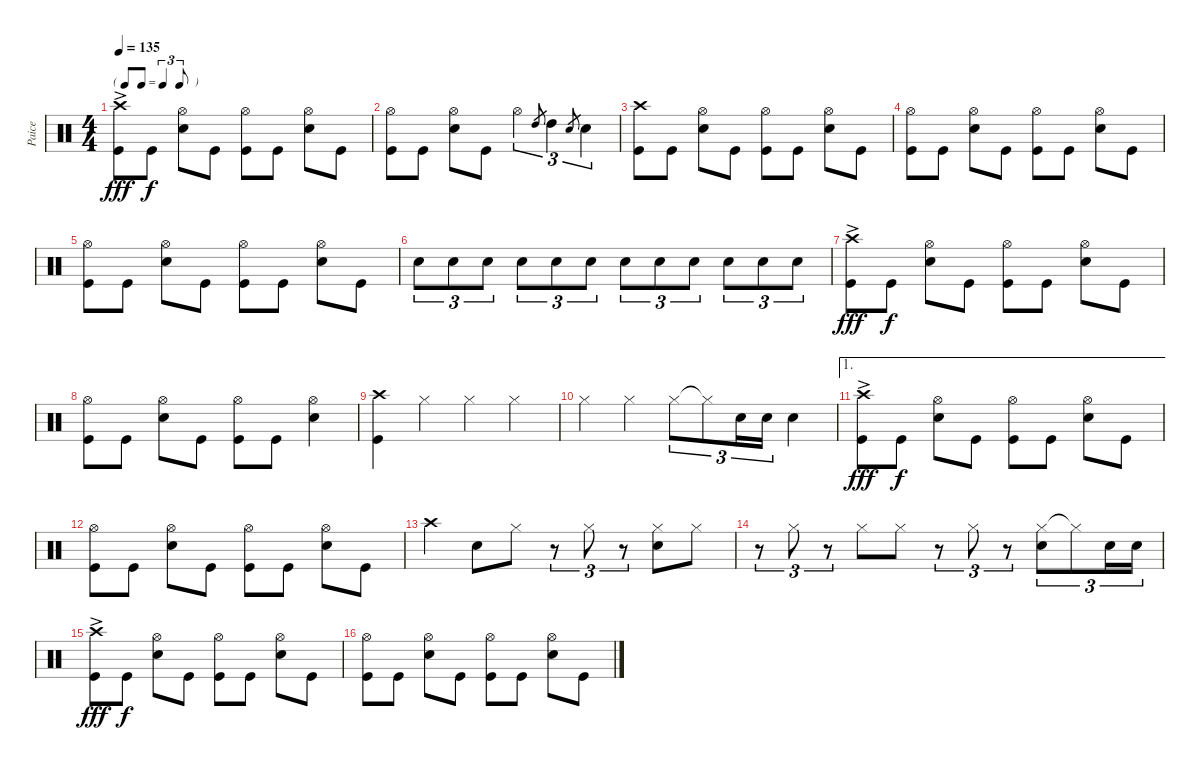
\track ("Paice" "Paice") {instrument percussion}
\staff {score}
\articulation defaults
\ts (4 4)
\tf triplet8th
\tempo 135
\clef neutral
\ks c
("Crash high (hit)"{ac} "Kick (hit)").8{dy fff} "Kick (hit)".8{dy f} ("Hi-Hat (open)" "Snare (hit) 2").8 "Kick (hit)".8 ("Hi-Hat (open)" "Kick (hit)").8 "Kick (hit)".8 ("Hi-Hat (open)" "Snare (hit) 2").8 "Kick (hit)".8 |
("Hi-Hat (open)" "Kick (hit)").8 "Kick (hit)".8 ("Hi-Hat (open)" "Snare (hit) 2").8 "Kick (hit)".8 "Hi-Hat (open)".4{tu (3 2)} "High Tom (hit)".8{gr} "High Tom (hit)".4{tu (3 2)} "Snare (hit) 2".8{gr} "Snare (hit) 2".4{tu (3 2)} |
("Crash high (hit)" "Kick (hit)").8 "Kick (hit)".8 ("Hi-Hat (open)" "Snare (hit) 2").8 "Kick (hit)".8 ("Hi-Hat (open)" "Kick (hit)").8 "Kick (hit)".8 ("Hi-Hat (open)" "Snare (hit) 2").8 "Kick (hit)".8 |
("Hi-Hat (open)" "Kick (hit)").8 "Kick (hit)".8 ("Hi-Hat (open)" "Snare (hit) 2").8 "Kick (hit)".8 ("Hi-Hat (open)" "Kick (hit)").8 "Kick (hit)".8 ("Hi-Hat (open)" "Snare (hit) 2").8 "Kick (hit)".8 |
("Hi-Hat (open)" "Kick (hit)").8 "Kick (hit)".8 ("Hi-Hat (open)" "Snare (hit) 2").8 "Kick (hit)".8 ("Hi-Hat (open)" "Kick (hit)").8 "Kick (hit)".8 ("Hi-Hat (open)" "Snare (hit) 2").8 "Kick (hit)".8 |
"Snare (hit) 2".8{tu (3 2)} "Snare (hit) 2".8{tu (3 2)} "Snare (hit) 2".8{tu (3 2)} "Snare (hit) 2".8{tu (3 2)} "Snare (hit) 2".8{tu (3 2)} "Snare (hit) 2".8{tu (3 2)} "Snare (hit) 2".8{tu (3 2)} "Snare (hit) 2".8{tu (3 2)} "Snare (hit) 2".8{tu (3 2)} "Snare (hit) 2".8{tu (3 2)} "Snare (hit) 2".8{tu (3 2)} "Snare (hit) 2".8{tu (3 2)} |
("Crash high (hit)"{ac} "Kick (hit)").8{dy fff} "Kick (hit)".8{dy f} ("Hi-Hat (open)" "Snare (hit) 2").8 "Kick (hit)".8 ("Hi-Hat (open)" "Kick (hit)").8 "Kick (hit)".8 ("Hi-Hat (open)" "Snare (hit) 2").8 "Kick (hit)".8 |
("Hi-Hat (open)" "Kick (hit)").8 "Kick (hit)".8 ("Hi-Hat (open)" "Snare (hit) 2").8 "Kick (hit)".8 ("Hi-Hat (open)" "Kick (hit)").8 "Kick (hit)".8 ("Hi-Hat (open)" "Snare (hit) 2").4 |
("Crash high (hit)" "Kick (hit)").4 "Hi-Hat (closed)".4 "Hi-Hat (closed)".4 "Hi-Hat (closed)".4 |
"Hi-Hat (closed)".4 "Hi-Hat (closed)".4 "Hi-Hat (closed)".8{tu (3 2)} "Hi-Hat (closed)"{t}.8{tu (3 2)} "Snare (hit) 2".16{tu (3 2)} "Snare (hit) 2".16{tu (3 2)} "Snare (hit) 2".4 |
\ae 1
("Crash high (hit)"{ac} "Kick (hit)").8{dy fff} "Kick (hit)".8{dy f} ("Hi-Hat (open)" "Snare (hit) 2").8 "Kick (hit)".8 ("Hi-Hat (open)" "Kick (hit)").8 "Kick (hit)".8 ("Hi-Hat (open)" "Snare (hit) 2").8 "Kick (hit)".8 |
("Hi-Hat (open)" "Kick (hit)").8 "Kick (hit)".8 ("Hi-Hat (open)" "Snare (hit) 2").8 "Kick (hit)".8 ("Hi-Hat (open)" "Kick (hit)").8 "Kick (hit)".8 ("Hi-Hat (open)" "Snare (hit) 2").8 "Kick (hit)".8 |
"Crash high (hit)".4 "Snare (hit) 2".8 "Hi-Hat (closed)".8 r.8{tu (3 2)} "Hi-Hat (closed)".8{tu (3 2)} r.8{tu (3 2)} ("Hi-Hat (closed)" "Snare (hit) 2").8 "Hi-Hat (closed)".8 |
r.8{tu (3 2)} "Hi-Hat (closed)".8{tu (3 2)} r.8{tu (3 2)} "Hi-Hat (closed)".8 "Hi-Hat (closed)".8 r.8{tu (3 2)} "Hi-Hat (closed)".8{tu (3 2)} r.8{tu (3 2)} ("Hi-Hat (closed)" "Snare (hit) 2").8{tu (3 2)} "Hi-Hat (closed)"{t}.8{tu (3 2)} "Snare (hit) 2".16{tu (3 2)} "Snare (hit) 2".16{tu (3 2)} |
("Crash high (hit)"{ac} "Kick (hit)").8{dy fff} "Kick (hit)".8{dy f} ("Hi-Hat (open)" "Snare (hit) 2").8 "Kick (hit)".8 ("Hi-Hat (open)" "Kick (hit)").8 "Kick (hit)".8 ("Hi-Hat (open)" "Snare (hit) 2").8 "Kick (hit)".8 |
("Hi-Hat (open)" "Kick (hit)").8 "Kick (hit)".8 ("Hi-Hat (open)" "Snare (hit) 2").8 "Kick (hit)".8 ("Hi-Hat (open)" "Kick (hit)").8 "Kick (hit)".8 ("Hi-Hat (open)" "Snare (hit) 2").8 "Kick (hit)".8
